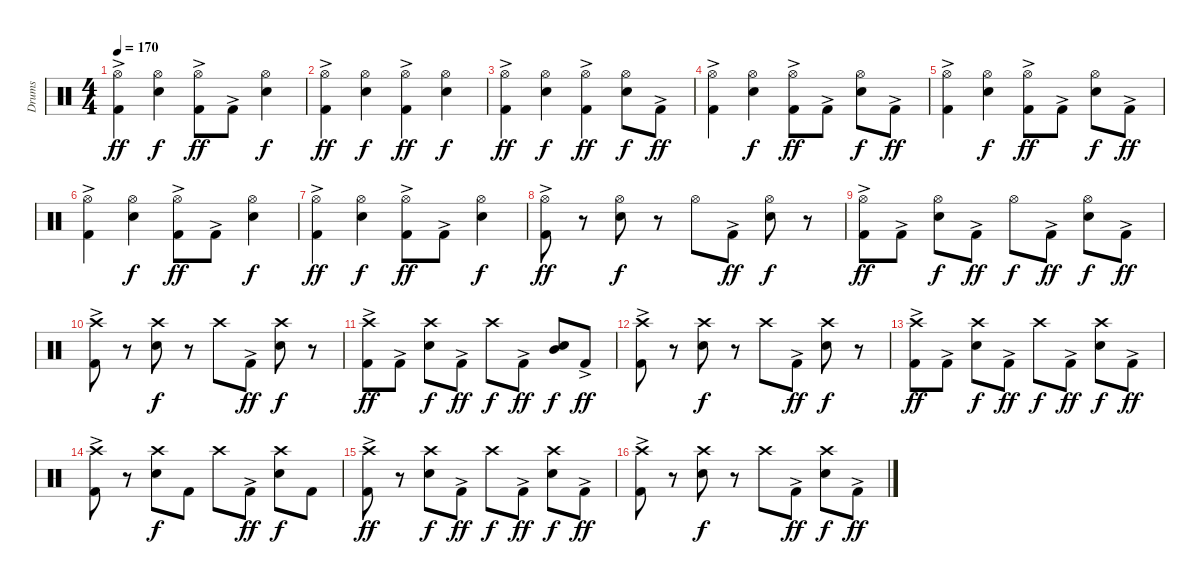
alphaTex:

\track ("Drums" "Drums") {instrument percussion}
\staff {score}
\articulation defaults
\ts (4 4)
\tempo 170
\clef neutral
\ks c
("Hi-Hat (open)" "Kick (hit) 2"{ac}).4{dy ff} ("Hi-Hat (open)" "Electric Snare (hit)").4{dy f} ("Hi-Hat (open)" "Kick (hit) 2"{ac}).8{dy ff} "Kick (hit) 2"{ac}.8 ("Hi-Hat (open)" "Electric Snare (hit)").4{dy f} |
("Hi-Hat (open)" "Kick (hit) 2"{ac}).4{dy ff} ("Hi-Hat (open)" "Electric Snare (hit)").4{dy f} ("Hi-Hat (open)" "Kick (hit) 2"{ac}).4{dy ff} ("Hi-Hat (open)" "Electric Snare (hit)").4{dy f} |
("Hi-Hat (open)" "Kick (hit) 2"{ac}).4{dy ff} ("Hi-Hat (open)" "Electric Snare (hit)").4{dy f} ("Hi-Hat (open)" "Kick (hit) 2"{ac}).4{dy ff} ("Hi-Hat (open)" "Electric Snare (hit)").8{dy f} "Kick (hit) 2"{ac}.8{dy ff} |
("Hi-Hat (open)" "Kick (hit) 2"{ac}).4 ("Hi-Hat (open)" "Electric Snare (hit)").4{dy f} ("Hi-Hat (open)" "Kick (hit) 2"{ac}).8{dy ff} "Kick (hit) 2"{ac}.8 ("Hi-Hat (open)" "Electric Snare (hit)").8{dy f} "Kick (hit) 2"{ac}.8{dy ff} |
("Hi-Hat (open)" "Kick (hit) 2"{ac}).4 ("Hi-Hat (open)" "Electric Snare (hit)").4{dy f} ("Hi-Hat (open)" "Kick (hit) 2"{ac}).8{dy ff} "Kick (hit) 2"{ac}.8 ("Hi-Hat (open)" "Electric Snare (hit)").8{dy f} "Kick (hit) 2"{ac}.8{dy ff} |
("Hi-Hat (open)" "Kick (hit) 2"{ac}).4 ("Hi-Hat (open)" "Electric Snare (hit)").4{dy f} ("Hi-Hat (open)" "Kick (hit) 2"{ac}).8{dy ff} "Kick (hit) 2"{ac}.8 ("Hi-Hat (open)" "Electric Snare (hit)").4{dy f} |
("Hi-Hat (open)" "Kick (hit) 2"{ac}).4{dy ff} ("Hi-Hat (open)" "Electric Snare (hit)").4{dy f} ("Hi-Hat (open)" "Kick (hit) 2"{ac}).8{dy ff} "Kick (hit) 2"{ac}.8 ("Hi-Hat (open)" "Electric Snare (hit)").4{dy f} |
("Hi-Hat (open)" "Kick (hit) 2"{ac}).8{dy ff} r.8 ("Hi-Hat (open)" "Electric Snare (hit)").8{dy f} r.8 "Hi-Hat (open)".8 "Kick (hit) 2"{ac}.8{dy ff} ("Hi-Hat (open)" "Electric Snare (hit)").8{dy f} r.8 |
("Hi-Hat (open)" "Kick (hit) 2"{ac}).8{dy ff} "Kick (hit) 2"{ac}.8 ("Hi-Hat (open)" "Electric Snare (hit)").8{dy f} "Kick (hit) 2"{ac}.8{dy ff} "Hi-Hat (open)".8{dy f} "Kick (hit) 2"{ac}.8{dy ff} ("Hi-Hat (open)" "Electric Snare (hit)").8{dy f} "Kick (hit) 2"{ac}.8{dy ff} |
("Crash high (hit)" "Kick (hit) 2"{ac}).8 r.8 ("Crash high (hit)" "Electric Snare (hit)").8{dy f} r.8 "Crash high (hit)".8 "Kick (hit) 2"{ac}.8{dy ff} ("Crash high (hit)" "Electric Snare (hit)").8{dy f} r.8 |
("Crash high (hit)" "Kick (hit) 2"{ac}).8{dy ff} "Kick (hit) 2"{ac}.8 ("Crash high (hit)" "Electric Snare (hit)").8{dy f} "Kick (hit) 2"{ac}.8{dy ff} "Crash high (hit)".8{dy f} "Kick (hit) 2"{ac}.8{dy ff} ("Mid Tom (hit)" "Electric Snare (hit)").8{dy f} "Kick (hit) 2"{ac}.8{dy ff} |
("Crash high (hit)" "Kick (hit) 2"{ac}).8 r.8 ("Crash high (hit)" "Electric Snare (hit)").8{dy f} r.8 "Crash high (hit)".8 "Kick (hit) 2"{ac}.8{dy ff} ("Crash high (hit)" "Electric Snare (hit)").8{dy f} r.8 |
("Crash high (hit)" "Kick (hit) 2"{ac}).8{dy ff} "Kick (hit) 2"{ac}.8 ("Crash high (hit)" "Electric Snare (hit)").8{dy f} "Kick (hit) 2"{ac}.8{dy ff} "Crash high (hit)".8{dy f} "Kick (hit) 2"{ac}.8{dy ff} ("Crash high (hit)" "Electric Snare (hit)").8{dy f} "Kick (hit) 2"{ac}.8{dy ff} |
("Crash high (hit)" "Kick (hit) 2"{ac}).8 r.8 ("Crash high (hit)" "Electric Snare (hit)").8{dy f} "Kick (hit) 2".8 "Crash high (hit)".8 "Kick (hit) 2"{ac}.8{dy ff} ("Crash high (hit)" "Electric Snare (hit)").8{dy f} "Kick (hit) 2".8 |
("Crash high (hit)" "Kick (hit) 2"{ac}).8{dy ff} r.8 ("Crash high (hit)" "Electric Snare (hit)").8{dy f} "Kick (hit) 2"{ac}.8{dy ff} "Crash high (hit)".8{dy f} "Kick (hit) 2"{ac}.8{dy ff} ("Crash high (hit)" "Electric Snare (hit)").8{dy f} "Kick (hit) 2"{ac}.8{dy ff} |
("Crash high (hit)" "Kick (hit) 2"{ac}).8 r.8 ("Crash high (hit)" "Electric Snare (hit)").8{dy f} r.8 "Crash high (hit)".8 "Kick (hit) 2"{ac}.8{dy ff} ("Crash high (hit)" "Electric Snare (hit)").8{dy f} "Kick (hit) 2"{ac}.8{dy ff}
